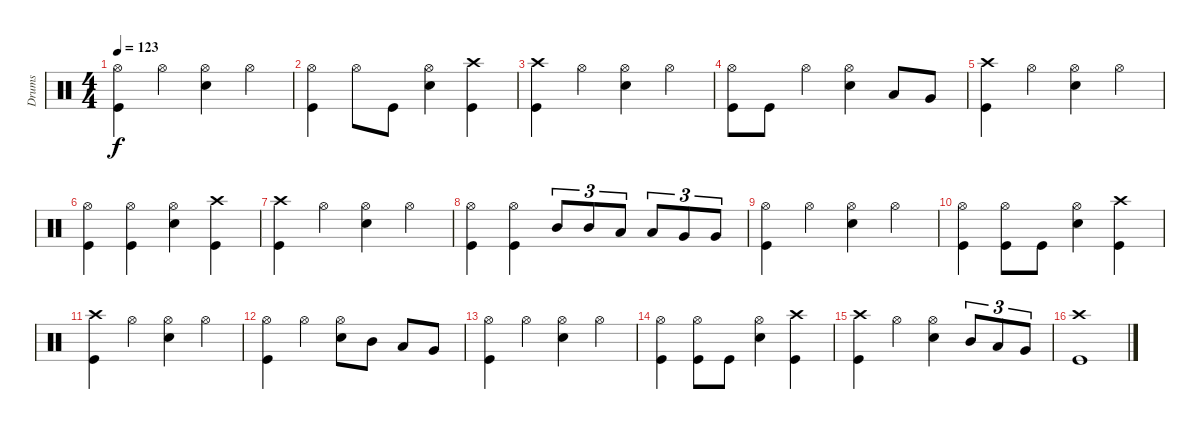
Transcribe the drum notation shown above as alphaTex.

\track ("Drums" "Drums") {instrument percussion}
\staff {score}
\articulation defaults
\ts (4 4)
\tempo 123
\clef neutral
\ks c
("Hi-Hat (open)" "Kick (hit)").4{dy f} "Hi-Hat (open)".4 ("Hi-Hat (open)" "Electric Snare (hit)").4 "Hi-Hat (open)".4 |
("Hi-Hat (open)" "Kick (hit)").4 "Hi-Hat (open)".8 "Kick (hit)".8 ("Hi-Hat (open)" "Electric Snare (hit)").4 ("Crash high (hit)" "Kick (hit)").4 |
("Crash high (hit)" "Kick (hit)").4 "Hi-Hat (open)".4 ("Hi-Hat (open)" "Electric Snare (hit)").4 "Hi-Hat (open)".4 |
("Hi-Hat (open)" "Kick (hit)").8 "Kick (hit)".8 "Hi-Hat (open)".4 ("Hi-Hat (open)" "Electric Snare (hit)").4 "Low Tom (hit)".8 "Very Low Tom (hit)".8 |
("Crash high (hit)" "Kick (hit)").4 "Hi-Hat (open)".4 ("Hi-Hat (open)" "Electric Snare (hit)").4 "Hi-Hat (open)".4 |
("Hi-Hat (open)" "Kick (hit)").4 ("Hi-Hat (open)" "Kick (hit)").4 ("Hi-Hat (open)" "Electric Snare (hit)").4 ("Crash high (hit)" "Kick (hit)").4 |
("Crash high (hit)" "Kick (hit)").4 "Hi-Hat (open)".4 ("Hi-Hat (open)" "Electric Snare (hit)").4 "Hi-Hat (open)".4 |
("Hi-Hat (open)" "Kick (hit)").4 ("Hi-Hat (open)" "Kick (hit)").4 "Mid Tom (hit)".8{tu (3 2)} "Mid Tom (hit)".8{tu (3 2)} "Low Tom (hit)".8{tu (3 2)} "Low Tom (hit)".8{tu (3 2)} "Very Low Tom (hit)".8{tu (3 2)} "Very Low Tom (hit)".8{tu (3 2)} |
("Hi-Hat (open)" "Kick (hit)").4 "Hi-Hat (open)".4 ("Hi-Hat (open)" "Electric Snare (hit)").4 "Hi-Hat (open)".4 |
("Hi-Hat (open)" "Kick (hit)").4 ("Hi-Hat (open)" "Kick (hit)").8 "Kick (hit)".8 ("Hi-Hat (open)" "Electric Snare (hit)").4 ("Crash high (hit)" "Kick (hit)").4 |
("Crash high (hit)" "Kick (hit)").4 "Hi-Hat (open)".4 ("Hi-Hat (open)" "Electric Snare (hit)").4 "Hi-Hat (open)".4 |
("Hi-Hat (open)" "Kick (hit)").4 "Hi-Hat (open)".4 ("Hi-Hat (open)" "Electric Snare (hit)").8 "Mid Tom (hit)".8 "Low Tom (hit)".8 "Very Low Tom (hit)".8 |
("Hi-Hat (open)" "Kick (hit)").4 "Hi-Hat (open)".4 ("Hi-Hat (open)" "Electric Snare (hit)").4 "Hi-Hat (open)".4 |
("Hi-Hat (open)" "Kick (hit)").4 ("Hi-Hat (open)" "Kick (hit)").8 "Kick (hit)".8 ("Hi-Hat (open)" "Electric Snare (hit)").4 ("Crash high (hit)" "Kick (hit)").4 |
("Crash high (hit)" "Kick (hit)").4 "Hi-Hat (open)".4 ("Hi-Hat (open)" "Electric Snare (hit)").4 "Mid Tom (hit)".8{tu (3 2)} "Low Tom (hit)".8{tu (3 2)} "Very Low Tom (hit)".8{tu (3 2)} |
("Crash high (hit)" "Kick (hit)").1
